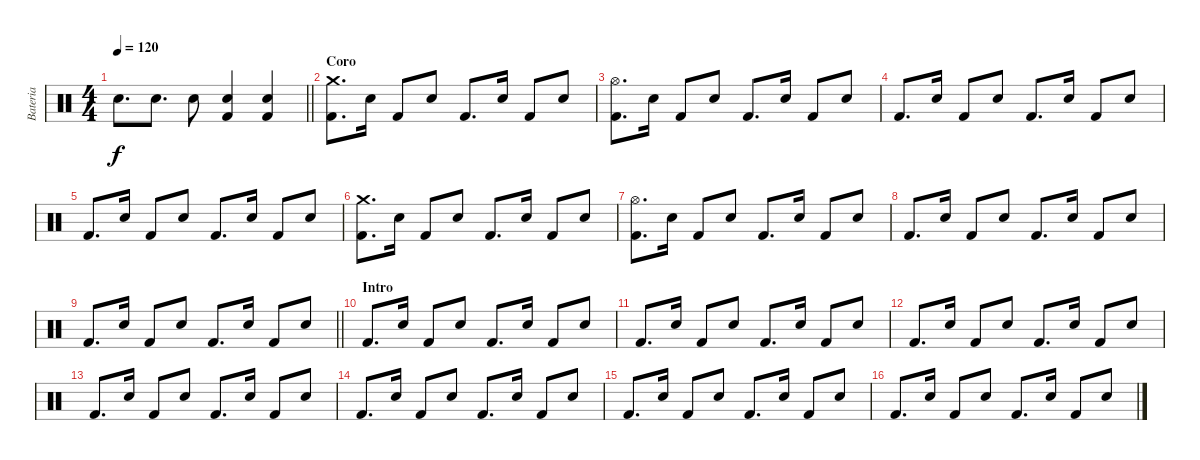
\track ("Bateria" "Bateria") {instrument percussion}
\staff {score}
\articulation defaults
\ts (4 4)
\tempo 120
\clef neutral
\barLineRight lightlight
\ks c "Snare (hit) 2".8{d dy f} "Snare (hit) 2".8{d} "Snare (hit) 2".8
("Snare (hit) 2" "Kick (hit) 2").4 ("Snare (hit) 2" "Kick (hit) 2").4 |
\section ("" "Coro")
("Crash medium (hit)" "Kick (hit) 2").8{d} "Snare (hit) 2".16 "Kick (hit) 2".8 "Snare (hit) 2".8 "Kick (hit) 2".8{d} "Snare (hit) 2".16 "Kick (hit) 2".8 "Snare (hit) 2".8 |
("Hi-Hat (open)" "Kick (hit) 2").8{d} "Snare (hit) 2".16 "Kick (hit) 2".8 "Snare (hit) 2".8 "Kick (hit) 2".8{d} "Snare (hit) 2".16 "Kick (hit) 2".8 "Snare (hit) 2".8 |
"Kick (hit) 2".8{d} "Snare (hit) 2".16 "Kick (hit) 2".8 "Snare (hit) 2".8 "Kick (hit) 2".8{d} "Snare (hit) 2".16 "Kick (hit) 2".8 "Snare (hit) 2".8 |
"Kick (hit) 2".8{d} "Snare (hit) 2".16 "Kick (hit) 2".8 "Snare (hit) 2".8 "Kick (hit) 2".8{d} "Snare (hit) 2".16 "Kick (hit) 2".8 "Snare (hit) 2".8 |
("Crash medium (hit)" "Kick (hit) 2").8{d} "Snare (hit) 2".16 "Kick (hit) 2".8 "Snare (hit) 2".8 "Kick (hit) 2".8{d} "Snare (hit) 2".16 "Kick (hit) 2".8 "Snare (hit) 2".8 |
("Hi-Hat (open)" "Kick (hit) 2").8{d} "Snare (hit) 2".16 "Kick (hit) 2".8 "Snare (hit) 2".8 "Kick (hit) 2".8{d} "Snare (hit) 2".16 "Kick (hit) 2".8 "Snare (hit) 2".8 |
"Kick (hit) 2".8{d} "Snare (hit) 2".16 "Kick (hit) 2".8 "Snare (hit) 2".8 "Kick (hit) 2".8{d} "Snare (hit) 2".16 "Kick (hit) 2".8 "Snare (hit) 2".8 |
\barLineRight lightlight "Kick (hit) 2".8{d} "Snare (hit) 2".16 "Kick (hit) 2".8 "Snare (hit) 2".8 "Kick (hit) 2".8{d} "Snare (hit) 2".16 "Kick (hit) 2".8 "Snare (hit) 2".8
|
\section ("" "Intro")
"Kick (hit) 2".8{d} "Snare (hit) 2".16 "Kick (hit) 2".8 "Snare (hit) 2".8 "Kick (hit) 2".8{d} "Snare (hit) 2".16 "Kick (hit) 2".8 "Snare (hit) 2".8 |
"Kick (hit) 2".8{d} "Snare (hit) 2".16 "Kick (hit) 2".8 "Snare (hit) 2".8 "Kick (hit) 2".8{d} "Snare (hit) 2".16 "Kick (hit) 2".8 "Snare (hit) 2".8 |
"Kick (hit) 2".8{d} "Snare (hit) 2".16 "Kick (hit) 2".8 "Snare (hit) 2".8 "Kick (hit) 2".8{d} "Snare (hit) 2".16 "Kick (hit) 2".8 "Snare (hit) 2".8 |
"Kick (hit) 2".8{d} "Snare (hit) 2".16 "Kick (hit) 2".8 "Snare (hit) 2".8 "Kick (hit) 2".8{d} "Snare (hit) 2".16 "Kick (hit) 2".8 "Snare (hit) 2".8 |
"Kick (hit) 2".8{d} "Snare (hit) 2".16 "Kick (hit) 2".8 "Snare (hit) 2".8 "Kick (hit) 2".8{d} "Snare (hit) 2".16 "Kick (hit) 2".8 "Snare (hit) 2".8 |
"Kick (hit) 2".8{d} "Snare (hit) 2".16 "Kick (hit) 2".8 "Snare (hit) 2".8 "Kick (hit) 2".8{d} "Snare (hit) 2".16 "Kick (hit) 2".8 "Snare (hit) 2".8 |
"Kick (hit) 2".8{d} "Snare (hit) 2".16 "Kick (hit) 2".8 "Snare (hit) 2".8 "Kick (hit) 2".8{d} "Snare (hit) 2".16 "Kick (hit) 2".8 "Snare (hit) 2".8
